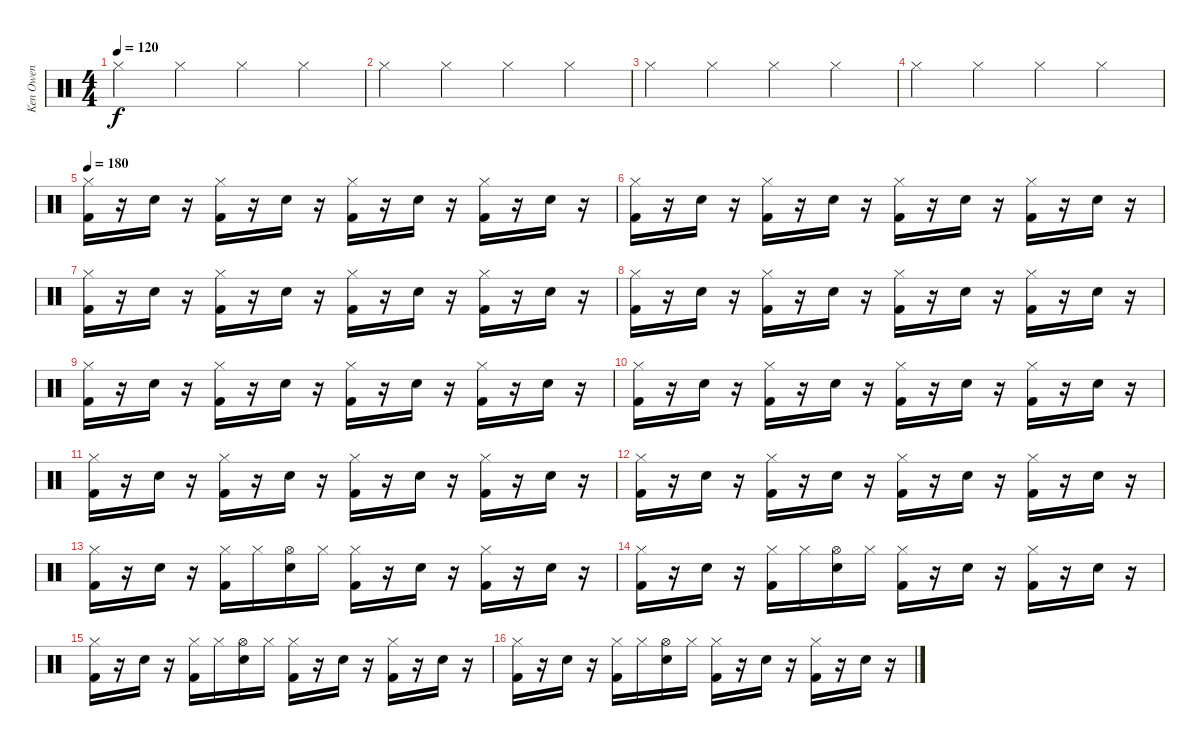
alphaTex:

\track ("Ken Owen" "Ken Owen") {instrument percussion}
\staff {score}
\articulation defaults
\ts (4 4)
\tempo 120
\clef neutral
\ks c "Hi-Hat (closed)".4{dy f} "Hi-Hat (closed)".4 "Hi-Hat (closed)".4 "Hi-Hat (closed)".4
|
"Hi-Hat (closed)".4 "Hi-Hat (closed)".4 "Hi-Hat (closed)".4 "Hi-Hat (closed)".4 |
"Hi-Hat (closed)".4 "Hi-Hat (closed)".4 "Hi-Hat (closed)".4 "Hi-Hat (closed)".4 |
"Hi-Hat (closed)".4 "Hi-Hat (closed)".4 "Hi-Hat (closed)".4 "Hi-Hat (closed)".4 |
\tempo 180
("Hi-Hat (closed)" "Kick (hit) 2").16 r.16 "Snare (hit) 2".16 r.16 ("Hi-Hat (closed)" "Kick (hit) 2").16 r.16 "Snare (hit) 2".16 r.16 ("Hi-Hat (closed)" "Kick (hit) 2").16 r.16 "Snare (hit) 2".16 r.16 ("Hi-Hat (closed)" "Kick (hit) 2").16 r.16 "Snare (hit) 2".16 r.16 |
("Hi-Hat (closed)" "Kick (hit) 2").16 r.16 "Snare (hit) 2".16 r.16 ("Hi-Hat (closed)" "Kick (hit) 2").16 r.16 "Snare (hit) 2".16 r.16 ("Hi-Hat (closed)" "Kick (hit) 2").16 r.16 "Snare (hit) 2".16 r.16 ("Hi-Hat (closed)" "Kick (hit) 2").16 r.16 "Snare (hit) 2".16 r.16 |
("Hi-Hat (closed)" "Kick (hit) 2").16 r.16 "Snare (hit) 2".16 r.16 ("Hi-Hat (closed)" "Kick (hit) 2").16 r.16 "Snare (hit) 2".16 r.16 ("Hi-Hat (closed)" "Kick (hit) 2").16 r.16 "Snare (hit) 2".16 r.16 ("Hi-Hat (closed)" "Kick (hit) 2").16 r.16 "Snare (hit) 2".16 r.16 |
("Hi-Hat (closed)" "Kick (hit) 2").16 r.16 "Snare (hit) 2".16 r.16 ("Hi-Hat (closed)" "Kick (hit) 2").16 r.16 "Snare (hit) 2".16 r.16 ("Hi-Hat (closed)" "Kick (hit) 2").16 r.16 "Snare (hit) 2".16 r.16 ("Hi-Hat (closed)" "Kick (hit) 2").16 r.16 "Snare (hit) 2".16 r.16 |
("Hi-Hat (closed)" "Kick (hit) 2").16 r.16 "Snare (hit) 2".16 r.16 ("Hi-Hat (closed)" "Kick (hit) 2").16 r.16 "Snare (hit) 2".16 r.16 ("Hi-Hat (closed)" "Kick (hit) 2").16 r.16 "Snare (hit) 2".16 r.16 ("Hi-Hat (closed)" "Kick (hit) 2").16 r.16 "Snare (hit) 2".16 r.16 |
("Hi-Hat (closed)" "Kick (hit) 2").16 r.16 "Snare (hit) 2".16 r.16 ("Hi-Hat (closed)" "Kick (hit) 2").16 r.16 "Snare (hit) 2".16 r.16 ("Hi-Hat (closed)" "Kick (hit) 2").16 r.16 "Snare (hit) 2".16 r.16 ("Hi-Hat (closed)" "Kick (hit) 2").16 r.16 "Snare (hit) 2".16 r.16 |
("Hi-Hat (closed)" "Kick (hit) 2").16 r.16 "Snare (hit) 2".16 r.16 ("Hi-Hat (closed)" "Kick (hit) 2").16 r.16 "Snare (hit) 2".16 r.16 ("Hi-Hat (closed)" "Kick (hit) 2").16 r.16 "Snare (hit) 2".16 r.16 ("Hi-Hat (closed)" "Kick (hit) 2").16 r.16 "Snare (hit) 2".16 r.16 |
("Hi-Hat (closed)" "Kick (hit) 2").16 r.16 "Snare (hit) 2".16 r.16 ("Hi-Hat (closed)" "Kick (hit) 2").16 r.16 "Snare (hit) 2".16 r.16 ("Hi-Hat (closed)" "Kick (hit) 2").16 r.16 "Snare (hit) 2".16 r.16 ("Hi-Hat (closed)" "Kick (hit) 2").16 r.16 "Snare (hit) 2".16 r.16 |
("Hi-Hat (closed)" "Kick (hit) 2").16 r.16 "Snare (hit) 2".16 r.16 ("Hi-Hat (closed)" "Kick (hit) 2").16 "Hi-Hat (closed)".16 ("Hi-Hat (open)" "Snare (hit) 2").16 "Hi-Hat (closed)".16 ("Hi-Hat (closed)" "Kick (hit) 2").16 r.16 "Snare (hit) 2".16 r.16 ("Hi-Hat (closed)" "Kick (hit) 2").16 r.16 "Snare (hit) 2".16 r.16 |
("Hi-Hat (closed)" "Kick (hit) 2").16 r.16 "Snare (hit) 2".16 r.16 ("Hi-Hat (closed)" "Kick (hit) 2").16 "Hi-Hat (closed)".16 ("Hi-Hat (open)" "Snare (hit) 2").16 "Hi-Hat (closed)".16 ("Hi-Hat (closed)" "Kick (hit) 2").16 r.16 "Snare (hit) 2".16 r.16 ("Hi-Hat (closed)" "Kick (hit) 2").16 r.16 "Snare (hit) 2".16 r.16 |
("Hi-Hat (closed)" "Kick (hit) 2").16 r.16 "Snare (hit) 2".16 r.16 ("Hi-Hat (closed)" "Kick (hit) 2").16 "Hi-Hat (closed)".16 ("Hi-Hat (open)" "Snare (hit) 2").16 "Hi-Hat (closed)".16 ("Hi-Hat (closed)" "Kick (hit) 2").16 r.16 "Snare (hit) 2".16 r.16 ("Hi-Hat (closed)" "Kick (hit) 2").16 r.16 "Snare (hit) 2".16 r.16 |
("Hi-Hat (closed)" "Kick (hit) 2").16 r.16 "Snare (hit) 2".16 r.16 ("Hi-Hat (closed)" "Kick (hit) 2").16 "Hi-Hat (closed)".16 ("Hi-Hat (open)" "Snare (hit) 2").16 "Hi-Hat (closed)".16 ("Hi-Hat (closed)" "Kick (hit) 2").16 r.16 "Snare (hit) 2".16 r.16 ("Hi-Hat (closed)" "Kick (hit) 2").16 r.16 "Snare (hit) 2".16 r.16
